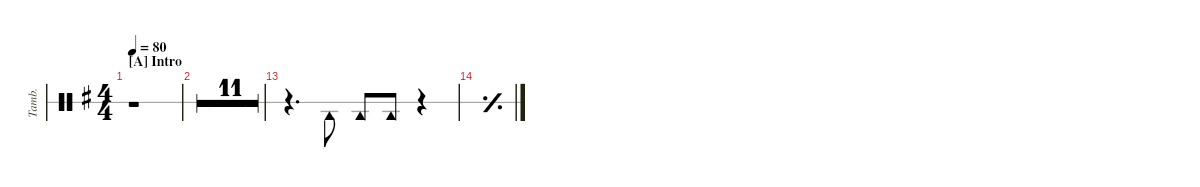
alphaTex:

\hideDynamics
\bracketExtendMode nobrackets
\otherSystemsTrackNameOrientation horizontal
\track ("Tambourine" "Tamb.") {multiBarRest instrument percussion}
\staff {score 1}
\articulation defaults
\ts (4 4)
\section ("A" "Intro")
\tempo 80
\clef neutral
\ks g
r.1{dy mf beam Down} |
r.1{beam Down} |
r.1{beam Down} |
\barLineRight lightlight
r.1{beam Down} |
r.1{beam Down} |
r.1{beam Down} |
r.1{beam Down} |
r.1{beam Down} |
r.1{beam Down} |
r.1{beam Down} |
r.1{beam Down} |
\barLineRight lightlight
r.1{beam Down} |
r.4{d beam Down} "Tambourine (hit)"{acc forcenatural}.8{beam Down} "Tambourine (hit)"{acc forcenatural}.8{beam Up} "Tambourine (hit)"{acc forcenatural}.8{beam Up} r.4{beam Up} |
\simile simple
